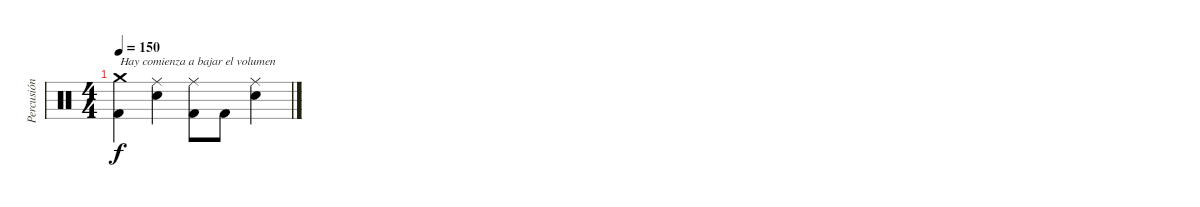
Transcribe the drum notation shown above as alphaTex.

\track ("Percusión" "Percusión") {instrument percussion}
\staff {score}
\articulation defaults
\ts (4 4)
\tempo 150
\clef neutral
\ks c
("Crash medium (hit)" "Kick (hit) 2").4{txt "Hay comienza a bajar el volumen" dy f} ("Ride (middle)" "Snare (hit) 2").4 ("Ride (middle)" "Kick (hit) 2").8 "Kick (hit) 2".8 ("Ride (middle)" "Snare (hit) 2").4
